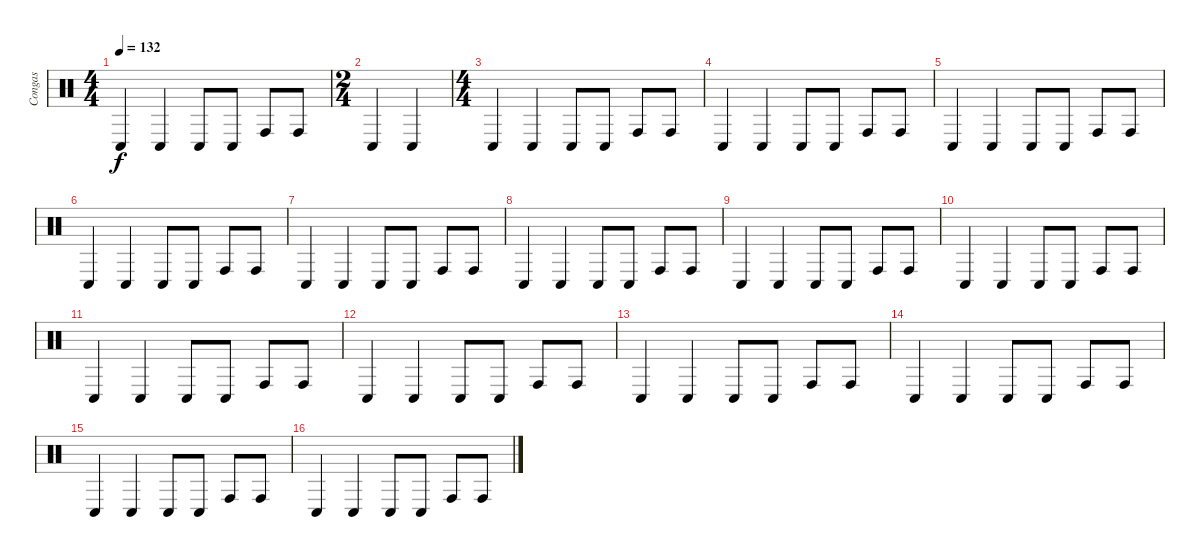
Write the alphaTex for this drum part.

\track ("Congas" "Congas") {instrument percussion}
\staff {score}
\articulation defaults
\ts (4 4)
\tempo 132
\clef neutral
\ks c "Conga low (hit)".4{dy f} "Conga low (hit)".4 "Conga low (hit)".8 "Conga low (hit)".8 "Conga high (hit)".8 "Conga high (hit)".8
|
\ts (2 4)
"Conga low (hit)".4 "Conga low (hit)".4 |
\ts (4 4)
"Conga low (hit)".4 "Conga low (hit)".4 "Conga low (hit)".8 "Conga low (hit)".8 "Conga high (hit)".8 "Conga high (hit)".8 |
"Conga low (hit)".4 "Conga low (hit)".4 "Conga low (hit)".8 "Conga low (hit)".8 "Conga high (hit)".8 "Conga high (hit)".8 |
"Conga low (hit)".4 "Conga low (hit)".4 "Conga low (hit)".8 "Conga low (hit)".8 "Conga high (hit)".8 "Conga high (hit)".8 |
"Conga low (hit)".4 "Conga low (hit)".4 "Conga low (hit)".8 "Conga low (hit)".8 "Conga high (hit)".8 "Conga high (hit)".8 |
"Conga low (hit)".4 "Conga low (hit)".4 "Conga low (hit)".8 "Conga low (hit)".8 "Conga high (hit)".8 "Conga high (hit)".8 |
"Conga low (hit)".4 "Conga low (hit)".4 "Conga low (hit)".8 "Conga low (hit)".8 "Conga high (hit)".8 "Conga high (hit)".8 |
"Conga low (hit)".4 "Conga low (hit)".4 "Conga low (hit)".8 "Conga low (hit)".8 "Conga high (hit)".8 "Conga high (hit)".8 |
"Conga low (hit)".4 "Conga low (hit)".4 "Conga low (hit)".8 "Conga low (hit)".8 "Conga high (hit)".8 "Conga high (hit)".8 |
"Conga low (hit)".4 "Conga low (hit)".4 "Conga low (hit)".8 "Conga low (hit)".8 "Conga high (hit)".8 "Conga high (hit)".8 |
"Conga low (hit)".4 "Conga low (hit)".4 "Conga low (hit)".8 "Conga low (hit)".8 "Conga high (hit)".8 "Conga high (hit)".8 |
"Conga low (hit)".4 "Conga low (hit)".4 "Conga low (hit)".8 "Conga low (hit)".8 "Conga high (hit)".8 "Conga high (hit)".8 |
"Conga low (hit)".4 "Conga low (hit)".4 "Conga low (hit)".8 "Conga low (hit)".8 "Conga high (hit)".8 "Conga high (hit)".8 |
"Conga low (hit)".4 "Conga low (hit)".4 "Conga low (hit)".8 "Conga low (hit)".8 "Conga high (hit)".8 "Conga high (hit)".8 |
"Conga low (hit)".4 "Conga low (hit)".4 "Conga low (hit)".8 "Conga low (hit)".8 "Conga high (hit)".8 "Conga high (hit)".8
